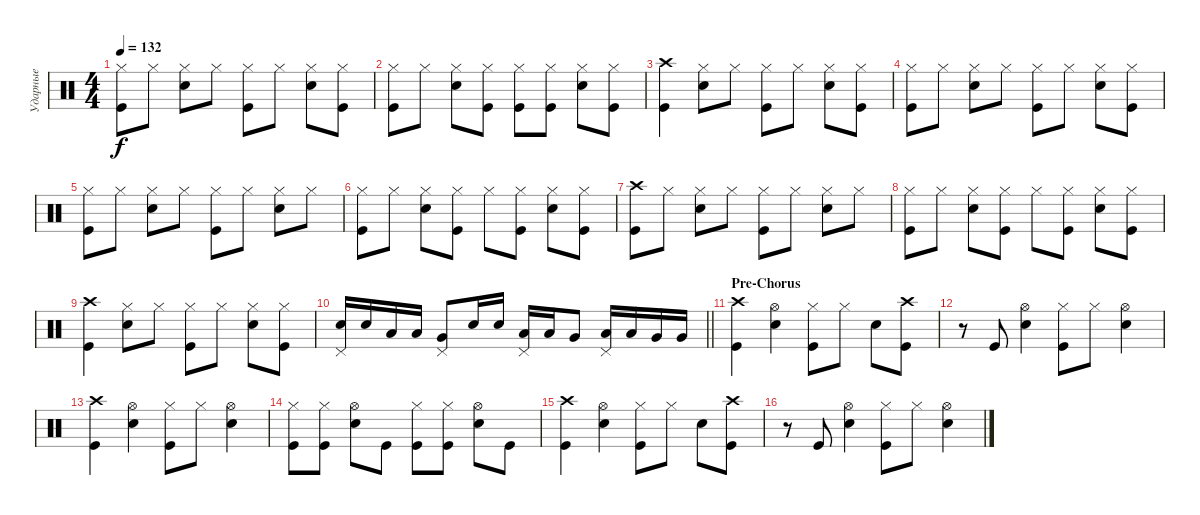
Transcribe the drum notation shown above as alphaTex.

\track ("Ударные" "Ударные") {instrument percussion}
\staff {score}
\articulation defaults
\ts (4 4)
\tempo 132
\clef neutral
\ks c
("Kick (hit)" "Hi-Hat (closed)").8{dy f} "Hi-Hat (closed)".8 ("Snare (hit) 2" "Hi-Hat (closed)").8 "Hi-Hat (closed)".8 ("Kick (hit)" "Hi-Hat (closed)").8 "Hi-Hat (closed)".8 ("Snare (hit) 2" "Hi-Hat (closed)").8 ("Kick (hit)" "Hi-Hat (closed)").8 |
("Kick (hit)" "Hi-Hat (closed)").8 "Hi-Hat (closed)".8 ("Snare (hit) 2" "Hi-Hat (closed)").8 ("Hi-Hat (closed)" "Kick (hit)").8 ("Kick (hit)" "Hi-Hat (closed)").8 ("Hi-Hat (closed)" "Kick (hit)").8 ("Snare (hit) 2" "Hi-Hat (closed)").8 ("Kick (hit)" "Hi-Hat (closed)").8 |
("Kick (hit)" "Crash high (hit)").4 ("Snare (hit) 2" "Hi-Hat (closed)").8 "Hi-Hat (closed)".8 ("Kick (hit)" "Hi-Hat (closed)").8 "Hi-Hat (closed)".8 ("Snare (hit) 2" "Hi-Hat (closed)").8 ("Kick (hit)" "Hi-Hat (closed)").8 |
("Kick (hit)" "Hi-Hat (closed)").8 "Hi-Hat (closed)".8 ("Snare (hit) 2" "Hi-Hat (closed)").8 "Hi-Hat (closed)".8 ("Kick (hit)" "Hi-Hat (closed)").8 "Hi-Hat (closed)".8 ("Snare (hit) 2" "Hi-Hat (closed)").8 ("Kick (hit)" "Hi-Hat (closed)").8 |
("Kick (hit)" "Hi-Hat (closed)").8 "Hi-Hat (closed)".8 ("Snare (hit) 2" "Hi-Hat (closed)").8 "Hi-Hat (closed)".8 ("Kick (hit)" "Hi-Hat (closed)").8 "Hi-Hat (closed)".8 ("Snare (hit) 2" "Hi-Hat (closed)").8 "Hi-Hat (closed)".8 |
("Kick (hit)" "Hi-Hat (closed)").8 "Hi-Hat (closed)".8 ("Snare (hit) 2" "Hi-Hat (closed)").8 ("Hi-Hat (closed)" "Kick (hit)").8 "Hi-Hat (closed)".8 ("Hi-Hat (closed)" "Kick (hit)").8 ("Snare (hit) 2" "Hi-Hat (closed)").8 ("Kick (hit)" "Hi-Hat (closed)").8 |
("Kick (hit)" "Crash high (hit)").8 "Hi-Hat (closed)".8 ("Snare (hit) 2" "Hi-Hat (closed)").8 "Hi-Hat (closed)".8 ("Kick (hit)" "Hi-Hat (closed)").8 "Hi-Hat (closed)".8 ("Snare (hit) 2" "Hi-Hat (closed)").8 "Hi-Hat (closed)".8 |
("Kick (hit)" "Hi-Hat (closed)").8 "Hi-Hat (closed)".8 ("Snare (hit) 2" "Hi-Hat (closed)").8 ("Hi-Hat (closed)" "Kick (hit)").8 "Hi-Hat (closed)".8 ("Hi-Hat (closed)" "Kick (hit)").8 ("Snare (hit) 2" "Hi-Hat (closed)").8 ("Kick (hit)" "Hi-Hat (closed)").8 |
("Kick (hit)" "Crash high (hit)").4 ("Snare (hit) 2" "Hi-Hat (closed)").8 "Hi-Hat (closed)".8 ("Kick (hit)" "Hi-Hat (closed)").8 "Hi-Hat (closed)".8 ("Snare (hit) 2" "Hi-Hat (closed)").8 ("Kick (hit)" "Hi-Hat (closed)").8 |
\barLineRight lightlight
("Snare (hit) 2" "Pedal Hi-Hat (hit)").16 "Snare (hit) 2".16 "Low Tom (hit)".16 "Low Tom (hit)".16 ("Very Low Tom (hit)" "Pedal Hi-Hat (hit)").8 "Snare (hit) 2".16 "Snare (hit) 2".16 ("Low Tom (hit)" "Pedal Hi-Hat (hit)").16 "Low Tom (hit)".16 "Very Low Tom (hit)".8 ("Low Tom (hit)" "Pedal Hi-Hat (hit)").16 "Low Tom (hit)".16 "Very Low Tom (hit)".16 "Very Low Tom (hit)".16 |
\section ("" "Pre-Chorus")
("Kick (hit)" "Crash high (hit)").4 ("Snare (hit) 2" "Hi-Hat (open)").4 ("Hi-Hat (closed)" "Kick (hit)").8 "Hi-Hat (closed)".8 "Snare (hit) 2".8 ("Kick (hit)" "Crash high (hit)").8 |
r.8 "Kick (hit)".8 ("Snare (hit) 2" "Hi-Hat (open)").4 ("Hi-Hat (closed)" "Kick (hit)").8 "Hi-Hat (closed)".8 ("Hi-Hat (open)" "Snare (hit) 2").4 |
("Kick (hit)" "Crash high (hit)").4 ("Hi-Hat (open)" "Snare (hit) 2").4 ("Kick (hit)" "Hi-Hat (closed)").8 "Hi-Hat (closed)".8 ("Snare (hit) 2" "Hi-Hat (open)").4 |
("Kick (hit)" "Hi-Hat (closed)").8 ("Kick (hit)" "Hi-Hat (closed)").8 ("Snare (hit) 2" "Hi-Hat (open)").8 "Kick (hit)".8 ("Kick (hit)" "Hi-Hat (closed)").8 ("Kick (hit)" "Hi-Hat (closed)").8 ("Snare (hit) 2" "Hi-Hat (open)").8 "Kick (hit)".8 |
("Kick (hit)" "Crash high (hit)").4 ("Snare (hit) 2" "Hi-Hat (open)").4 ("Hi-Hat (closed)" "Kick (hit)").8 "Hi-Hat (closed)".8 "Snare (hit) 2".8 ("Kick (hit)" "Crash high (hit)").8 |
r.8 "Kick (hit)".8 ("Snare (hit) 2" "Hi-Hat (open)").4 ("Hi-Hat (closed)" "Kick (hit)").8 "Hi-Hat (closed)".8 ("Hi-Hat (open)" "Snare (hit) 2").4
